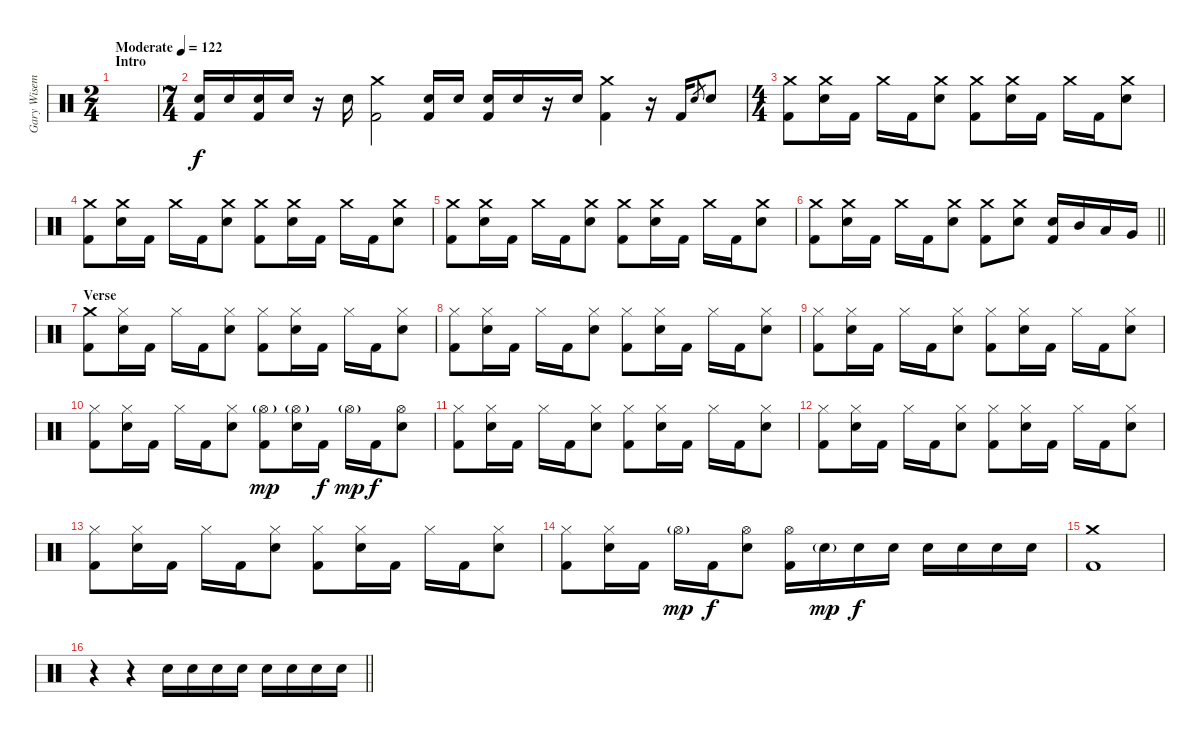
\track ("Gary Wiseman - Drums" "Gary Wisem") {instrument percussion}
\staff {score}
\articulation defaults
\ts (2 4)
\section ("" "Intro")
\tempo (122 "Moderate")
\clef neutral
\ks c
|
\ts (7 4)
("Electric Snare (hit)" "Kick (hit) 2").16 "Electric Snare (hit)".16 ("Electric Snare (hit)" "Kick (hit) 2").16 "Electric Snare (hit)".16 r.16 "Electric Snare (hit)".16 ("Crash medium (hit)" "Kick (hit) 2").2 ("Electric Snare (hit)" "Kick (hit) 2").16 "Electric Snare (hit)".16 ("Electric Snare (hit)" "Kick (hit) 2").16 "Electric Snare (hit)".16 r.16 "Electric Snare (hit)".16 ("Crash medium (hit)" "Kick (hit) 2").4 r.16 "Kick (hit) 2".16 "Electric Snare (hit)".8{gr} "Electric Snare (hit)".8 |
\ts (4 4)
("Crash medium (hit)" "Kick (hit) 2").8 ("Crash medium (hit)" "Electric Snare (hit)").16 "Kick (hit) 2".16 "Crash medium (hit)".16 "Kick (hit) 2".16 ("Crash medium (hit)" "Electric Snare (hit)").8 ("Crash medium (hit)" "Kick (hit) 2").8 ("Crash medium (hit)" "Electric Snare (hit)").16 "Kick (hit) 2".16 "Crash medium (hit)".16 "Kick (hit) 2".16 ("Crash medium (hit)" "Electric Snare (hit)").8 |
("Crash medium (hit)" "Kick (hit) 2").8 ("Crash medium (hit)" "Electric Snare (hit)").16 "Kick (hit) 2".16 "Crash medium (hit)".16 "Kick (hit) 2".16 ("Crash medium (hit)" "Electric Snare (hit)").8 ("Crash medium (hit)" "Kick (hit) 2").8 ("Crash medium (hit)" "Electric Snare (hit)").16 "Kick (hit) 2".16 "Crash medium (hit)".16 "Kick (hit) 2".16 ("Crash medium (hit)" "Electric Snare (hit)").8 |
("Crash medium (hit)" "Kick (hit) 2").8 ("Crash medium (hit)" "Electric Snare (hit)").16 "Kick (hit) 2".16 "Crash medium (hit)".16 "Kick (hit) 2".16 ("Crash medium (hit)" "Electric Snare (hit)").8 ("Crash medium (hit)" "Kick (hit) 2").8 ("Crash medium (hit)" "Electric Snare (hit)").16 "Kick (hit) 2".16 "Crash medium (hit)".16 "Kick (hit) 2".16 ("Crash medium (hit)" "Electric Snare (hit)").8 |
\barLineRight lightlight
("Crash medium (hit)" "Kick (hit) 2").8 ("Crash medium (hit)" "Electric Snare (hit)").16 "Kick (hit) 2".16 "Crash medium (hit)".16 "Kick (hit) 2".16 ("Crash medium (hit)" "Electric Snare (hit)").8 ("Crash medium (hit)" "Kick (hit) 2").8 ("Crash medium (hit)" "Electric Snare (hit)").8 ("Electric Snare (hit)" "Kick (hit) 2").16 "Mid Tom (hit)".16 "Low Tom (hit)".16 "Very Low Tom (hit)".16 |
\section ("" "Verse")
("Crash medium (hit)" "Kick (hit) 2").8 ("Hi-Hat (closed)" "Electric Snare (hit)").16 "Kick (hit) 2".16 "Hi-Hat (closed)".16 "Kick (hit) 2".16 ("Hi-Hat (closed)" "Electric Snare (hit)").8 ("Hi-Hat (closed)" "Kick (hit) 2").8 ("Hi-Hat (closed)" "Electric Snare (hit)").16 "Kick (hit) 2".16 "Hi-Hat (closed)".16 "Kick (hit) 2".16 ("Hi-Hat (closed)" "Electric Snare (hit)").8 |
("Hi-Hat (closed)" "Kick (hit) 2").8 ("Hi-Hat (closed)" "Electric Snare (hit)").16 "Kick (hit) 2".16 "Hi-Hat (closed)".16 "Kick (hit) 2".16 ("Hi-Hat (closed)" "Electric Snare (hit)").8 ("Hi-Hat (closed)" "Kick (hit) 2").8 ("Hi-Hat (closed)" "Electric Snare (hit)").16 "Kick (hit) 2".16 "Hi-Hat (closed)".16 "Kick (hit) 2".16 ("Hi-Hat (closed)" "Electric Snare (hit)").8 |
("Hi-Hat (closed)" "Kick (hit) 2").8 ("Hi-Hat (closed)" "Electric Snare (hit)").16 "Kick (hit) 2".16 "Hi-Hat (closed)".16 "Kick (hit) 2".16 ("Hi-Hat (closed)" "Electric Snare (hit)").8 ("Hi-Hat (closed)" "Kick (hit) 2").8 ("Hi-Hat (closed)" "Electric Snare (hit)").16 "Kick (hit) 2".16 "Hi-Hat (closed)".16 "Kick (hit) 2".16 ("Hi-Hat (closed)" "Electric Snare (hit)").8 |
("Hi-Hat (closed)" "Kick (hit) 2").8 ("Hi-Hat (closed)" "Electric Snare (hit)").16 "Kick (hit) 2".16 "Hi-Hat (closed)".16 "Kick (hit) 2".16 ("Hi-Hat (closed)" "Electric Snare (hit)").8 ("Hi-Hat (open)"{g} "Kick (hit) 2").8{dy mp} ("Hi-Hat (open)"{g} "Electric Snare (hit)").16 "Kick (hit) 2".16{dy f} "Hi-Hat (open)"{g}.16{dy mp} "Kick (hit) 2".16{dy f} ("Hi-Hat (open)" "Electric Snare (hit)").8 |
("Hi-Hat (closed)" "Kick (hit) 2").8 ("Hi-Hat (closed)" "Electric Snare (hit)").16 "Kick (hit) 2".16 "Hi-Hat (closed)".16 "Kick (hit) 2".16 ("Hi-Hat (closed)" "Electric Snare (hit)").8 ("Hi-Hat (closed)" "Kick (hit) 2").8 ("Hi-Hat (closed)" "Electric Snare (hit)").16 "Kick (hit) 2".16 "Hi-Hat (closed)".16 "Kick (hit) 2".16 ("Hi-Hat (closed)" "Electric Snare (hit)").8 |
("Hi-Hat (closed)" "Kick (hit) 2").8 ("Hi-Hat (closed)" "Electric Snare (hit)").16 "Kick (hit) 2".16 "Hi-Hat (closed)".16 "Kick (hit) 2".16 ("Hi-Hat (closed)" "Electric Snare (hit)").8 ("Hi-Hat (closed)" "Kick (hit) 2").8 ("Hi-Hat (closed)" "Electric Snare (hit)").16 "Kick (hit) 2".16 "Hi-Hat (closed)".16 "Kick (hit) 2".16 ("Hi-Hat (closed)" "Electric Snare (hit)").8 |
("Hi-Hat (closed)" "Kick (hit) 2").8 ("Hi-Hat (closed)" "Electric Snare (hit)").16 "Kick (hit) 2".16 "Hi-Hat (closed)".16 "Kick (hit) 2".16 ("Hi-Hat (closed)" "Electric Snare (hit)").8 ("Hi-Hat (closed)" "Kick (hit) 2").8 ("Hi-Hat (closed)" "Electric Snare (hit)").16 "Kick (hit) 2".16 "Hi-Hat (closed)".16 "Kick (hit) 2".16 ("Hi-Hat (closed)" "Electric Snare (hit)").8 |
("Hi-Hat (closed)" "Kick (hit) 2").8 ("Hi-Hat (closed)" "Electric Snare (hit)").16 "Kick (hit) 2".16 "Hi-Hat (open)"{g}.16{dy mp} "Kick (hit) 2".16{dy f} ("Hi-Hat (open)" "Electric Snare (hit)").8 ("Hi-Hat (open)" "Kick (hit) 2").16 "Electric Snare (hit)"{g}.16{dy mp} "Electric Snare (hit)".16{dy f} "Electric Snare (hit)".16 "Electric Snare (hit)".16 "Electric Snare (hit)".16 "Electric Snare (hit)".16 "Electric Snare (hit)".16 |
("Crash medium (hit)" "Kick (hit) 2").1 |
\barLineRight lightlight
r.4 r.4 "Electric Snare (hit)".16 "Electric Snare (hit)".16 "Electric Snare (hit)".16 "Electric Snare (hit)".16 "Electric Snare (hit)".16 "Electric Snare (hit)".16 "Electric Snare (hit)".16 "Electric Snare (hit)".16
